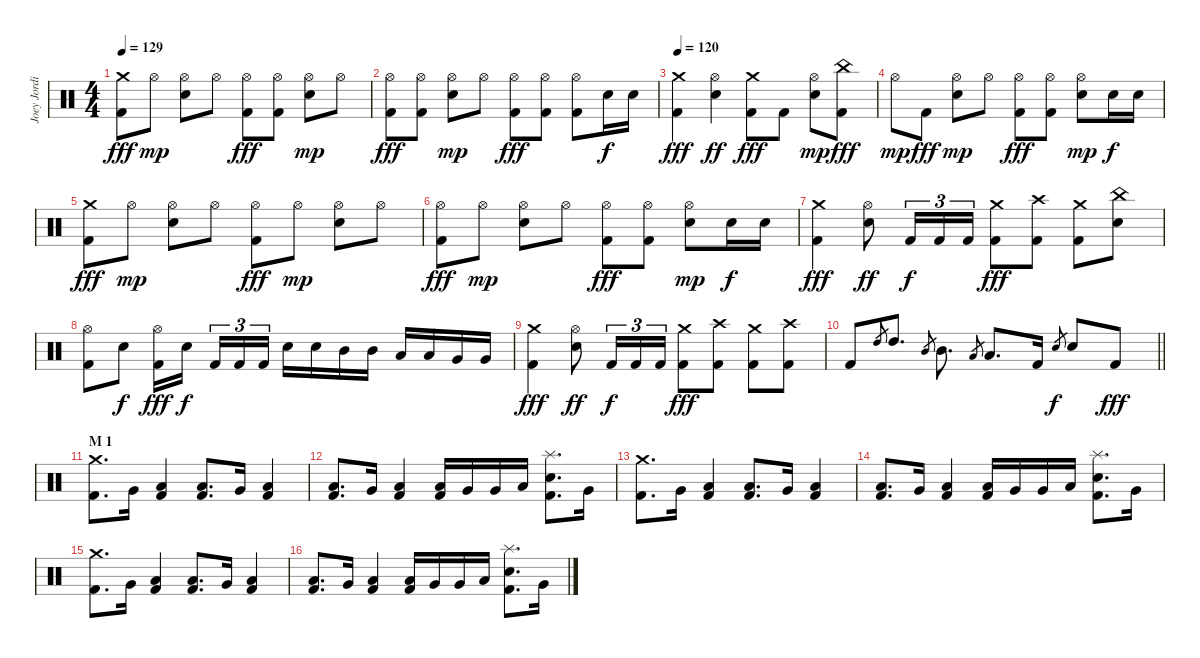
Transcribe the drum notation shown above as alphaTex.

\track ("Joey Jordison" "Joey Jordi") {instrument percussion}
\staff {score}
\articulation defaults
\ts (4 4)
\tempo 129
\clef neutral
\ks c
("Crash medium (hit)" "Kick (hit) 2").8{dy fff} "Hi-Hat (open)".8{dy mp} ("Hi-Hat (open)" "Electric Snare (hit)").8 "Hi-Hat (open)".8 ("Hi-Hat (open)" "Kick (hit) 2").8{dy fff} ("Hi-Hat (open)" "Kick (hit) 2").8 ("Hi-Hat (open)" "Electric Snare (hit)").8{dy mp} "Hi-Hat (open)".8 |
("Hi-Hat (open)" "Kick (hit) 2").8{dy fff} ("Hi-Hat (open)" "Kick (hit) 2").8 ("Hi-Hat (open)" "Electric Snare (hit)").8{dy mp} "Hi-Hat (open)".8 ("Hi-Hat (open)" "Kick (hit) 2").8{dy fff} ("Hi-Hat (open)" "Kick (hit) 2").8 ("Hi-Hat (open)" "Kick (hit) 2").8 "Electric Snare (hit)".16{dy f} "Electric Snare (hit)".16 |
\tempo 120
("Crash medium (hit)" "Kick (hit) 2").4{dy fff} ("Hi-Hat (open)" "Electric Snare (hit)").4{dy ff} ("Crash medium (hit)" "Kick (hit) 2").8{dy fff} "Kick (hit) 2".8 ("Hi-Hat (open)" "Electric Snare (hit)").8{dy mp} ("China (hit)" "Kick (hit) 2").8{dy fff} |
"Hi-Hat (open)".8{dy mp} "Kick (hit) 2".8{dy fff} ("Hi-Hat (open)" "Electric Snare (hit)").8{dy mp} "Hi-Hat (open)".8 ("Hi-Hat (open)" "Kick (hit) 2").8{dy fff} ("Hi-Hat (open)" "Kick (hit) 2").8 ("Hi-Hat (open)" "Electric Snare (hit)").8{dy mp} "Electric Snare (hit)".16{dy f} "Electric Snare (hit)".16 |
("Crash medium (hit)" "Kick (hit) 2").8{dy fff} "Hi-Hat (open)".8{dy mp} ("Hi-Hat (open)" "Electric Snare (hit)").8 "Hi-Hat (open)".8 ("Hi-Hat (open)" "Kick (hit) 2").8{dy fff} "Hi-Hat (open)".8{dy mp} ("Hi-Hat (open)" "Electric Snare (hit)").8 "Hi-Hat (open)".8 |
("Hi-Hat (open)" "Kick (hit) 2").8{dy fff} "Hi-Hat (open)".8{dy mp} ("Hi-Hat (open)" "Electric Snare (hit)").8 "Hi-Hat (open)".8 ("Hi-Hat (open)" "Kick (hit) 2").8{dy fff} ("Hi-Hat (open)" "Kick (hit) 2").8 ("Hi-Hat (open)" "Electric Snare (hit)").8{dy mp} "Electric Snare (hit)".16{dy f} "Electric Snare (hit)".16 |
("Crash medium (hit)" "Kick (hit) 2").4{dy fff} ("Hi-Hat (open)" "Electric Snare (hit)").8{dy ff} "Kick (hit) 2".16{tu (3 2) dy f} "Kick (hit) 2".16{tu (3 2)} "Kick (hit) 2".16{tu (3 2)} ("Crash medium (hit)" "Kick (hit) 2").8{dy fff} ("Crash high (hit)" "Kick (hit) 2").8 ("Crash medium (hit)" "Kick (hit) 2").8 ("China (hit)" "Electric Snare (hit)").8 |
("Hi-Hat (open)" "Kick (hit) 2").8 "Electric Snare (hit)".8{dy f} ("Hi-Hat (open)" "Kick (hit) 2").16{dy fff} "Electric Snare (hit)".16{dy f beam splitsecondary} "Kick (hit) 2".16{tu (3 2)} "Kick (hit) 2".16{tu (3 2)} "Kick (hit) 2".16{tu (3 2)} "Electric Snare (hit)".16 "Electric Snare (hit)".16 "Mid Tom (hit)".16 "Mid Tom (hit)".16 "Low Tom (hit)".16 "Low Tom (hit)".16 "Very Low Tom (hit)".16 "Very Low Tom (hit)".16 |
("Crash medium (hit)" "Kick (hit) 2").4{dy fff} ("Hi-Hat (open)" "Electric Snare (hit)").8{dy ff} "Kick (hit) 2".16{tu (3 2) dy f} "Kick (hit) 2".16{tu (3 2)} "Kick (hit) 2".16{tu (3 2)} ("Crash medium (hit)" "Kick (hit) 2").8{dy fff} ("Crash high (hit)" "Kick (hit) 2").8 ("Crash medium (hit)" "Kick (hit) 2").8 ("Crash high (hit)" "Kick (hit) 2").8 |
\barLineRight lightlight "Kick (hit) 2".8 "High Tom (hit)".8{gr} "High Tom (hit)".8{d} "Mid Tom (hit)".8{gr} "Mid Tom (hit)".8{d} "Low Tom (hit)".8{gr} "Low Tom (hit)".8{d} "Kick (hit) 2".16 "Electric Snare (hit)".8{gr dy f} "Electric Snare (hit)".8 "Kick (hit) 2".8{dy fff}
|
\section ("" "M 1")
("Crash medium (hit)" "Kick (hit) 2").8{d} "Very Low Tom (hit)".16 ("Low Floor Tom (hit)" "Kick (hit) 2").4 ("Low Floor Tom (hit)" "Kick (hit) 2").8{d} "Very Low Tom (hit)".16 ("Low Floor Tom (hit)" "Kick (hit) 2").4 |
("Low Floor Tom (hit)" "Kick (hit) 2").8{d} "Very Low Tom (hit)".16 ("Low Floor Tom (hit)" "Kick (hit) 2").4 ("Low Tom (hit)" "Kick (hit) 2").16 "Very Low Tom (hit)".16 "Very Low Tom (hit)".16 "Low Floor Tom (hit)".16 ("Splash (hit)" "Electric Snare (hit)" "Kick (hit) 2").8{d} "Very Low Tom (hit)".16 |
("Crash medium (hit)" "Kick (hit) 2").8{d} "Very Low Tom (hit)".16 ("Low Floor Tom (hit)" "Kick (hit) 2").4 ("Low Floor Tom (hit)" "Kick (hit) 2").8{d} "Very Low Tom (hit)".16 ("Low Floor Tom (hit)" "Kick (hit) 2").4 |
("Low Floor Tom (hit)" "Kick (hit) 2").8{d} "Very Low Tom (hit)".16 ("Low Floor Tom (hit)" "Kick (hit) 2").4 ("Low Tom (hit)" "Kick (hit) 2").16 "Very Low Tom (hit)".16 "Very Low Tom (hit)".16 "Low Floor Tom (hit)".16 ("Splash (hit)" "Electric Snare (hit)" "Kick (hit) 2").8{d} "Very Low Tom (hit)".16 |
("Crash medium (hit)" "Kick (hit) 2").8{d} "Very Low Tom (hit)".16 ("Low Floor Tom (hit)" "Kick (hit) 2").4 ("Low Floor Tom (hit)" "Kick (hit) 2").8{d} "Very Low Tom (hit)".16 ("Low Floor Tom (hit)" "Kick (hit) 2").4 |
("Low Floor Tom (hit)" "Kick (hit) 2").8{d} "Very Low Tom (hit)".16 ("Low Floor Tom (hit)" "Kick (hit) 2").4 ("Low Tom (hit)" "Kick (hit) 2").16 "Very Low Tom (hit)".16 "Very Low Tom (hit)".16 "Low Floor Tom (hit)".16 ("Splash (hit)" "Electric Snare (hit)" "Kick (hit) 2").8{d} "Very Low Tom (hit)".16
